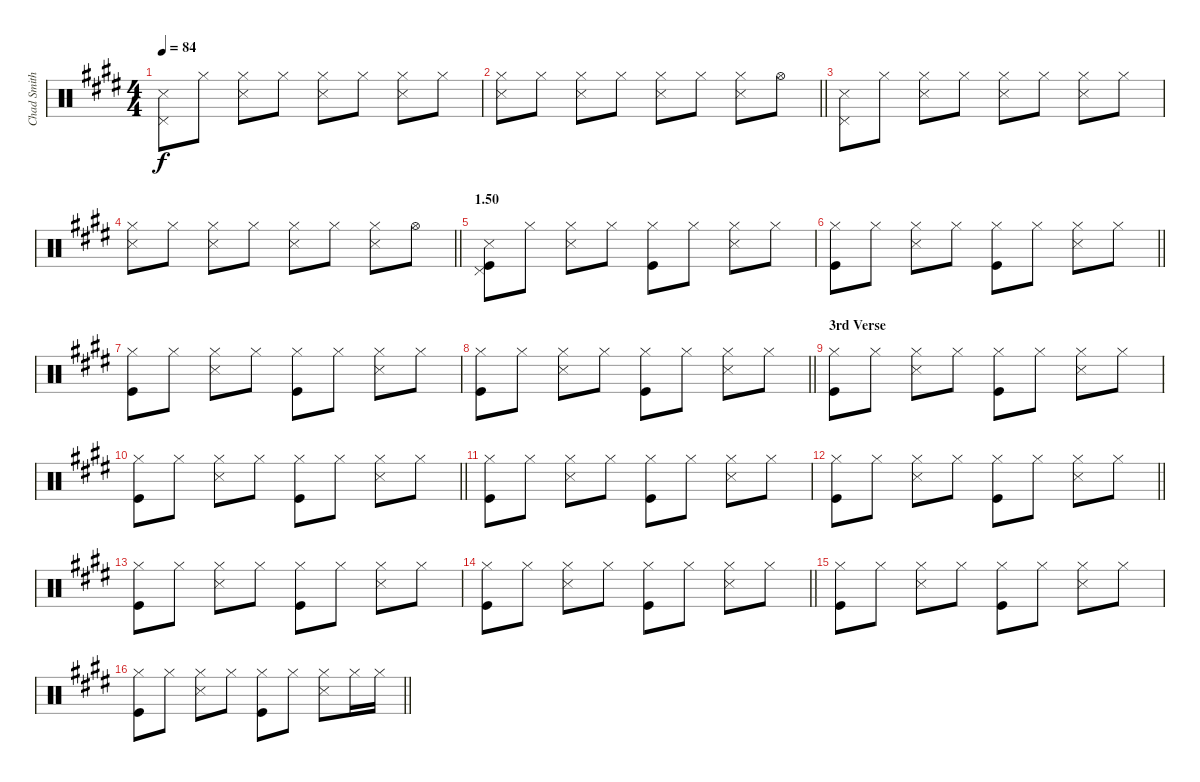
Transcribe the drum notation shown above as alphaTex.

\track ("Chad Smith" "Chad Smith") {instrument percussion}
\staff {score}
\articulation defaults
\ts (4 4)
\tempo 84
\clef neutral
\ks c#minor
("Snare (side stick) 3" "Pedal Hi-Hat (hit)").8{dy f} "Hi-Hat (closed)".8 ("Snare (side stick) 3" "Hi-Hat (closed)").8 "Hi-Hat (closed)".8 ("Hi-Hat (closed)" "Snare (side stick) 3").8 "Hi-Hat (closed)".8 ("Hi-Hat (closed)" "Snare (side stick) 3").8 "Hi-Hat (closed)".8 |
\barLineRight lightlight
\ks e
("Snare (side stick) 3" "Hi-Hat (closed)").8 "Hi-Hat (closed)".8 ("Snare (side stick) 3" "Hi-Hat (closed)").8 "Hi-Hat (closed)".8 ("Hi-Hat (closed)" "Snare (side stick) 3").8 "Hi-Hat (closed)".8 ("Hi-Hat (closed)" "Snare (side stick) 3").8 "Hi-Hat (open)".8 |
\ks c#minor
("Snare (side stick) 3" "Pedal Hi-Hat (hit)").8 "Hi-Hat (closed)".8 ("Snare (side stick) 3" "Hi-Hat (closed)").8 "Hi-Hat (closed)".8 ("Hi-Hat (closed)" "Snare (side stick) 3").8 "Hi-Hat (closed)".8 ("Hi-Hat (closed)" "Snare (side stick) 3").8 "Hi-Hat (closed)".8 |
\barLineRight lightlight
\ks e
("Snare (side stick) 3" "Hi-Hat (closed)").8 "Hi-Hat (closed)".8 ("Snare (side stick) 3" "Hi-Hat (closed)").8 "Hi-Hat (closed)".8 ("Hi-Hat (closed)" "Snare (side stick) 3").8 "Hi-Hat (closed)".8 ("Hi-Hat (closed)" "Snare (side stick) 3").8 "Hi-Hat (open)".8 |
\section ("" "1.50")
\ks c#minor
("Snare (side stick) 3" "Pedal Hi-Hat (hit)" "Kick (hit)").8 "Hi-Hat (closed)".8 ("Snare (side stick) 3" "Hi-Hat (closed)").8 "Hi-Hat (closed)".8 ("Hi-Hat (closed)" "Kick (hit)").8 "Hi-Hat (closed)".8 ("Hi-Hat (closed)" "Snare (side stick) 3").8 "Hi-Hat (closed)".8 |
\barLineRight lightlight
\ks e
("Kick (hit)" "Hi-Hat (closed)").8 "Hi-Hat (closed)".8 ("Snare (side stick) 3" "Hi-Hat (closed)").8 "Hi-Hat (closed)".8 ("Hi-Hat (closed)" "Kick (hit)").8 "Hi-Hat (closed)".8 ("Hi-Hat (closed)" "Snare (side stick) 3").8 "Hi-Hat (closed)".8 |
\ks c#minor
("Kick (hit)" "Hi-Hat (closed)").8 "Hi-Hat (closed)".8 ("Snare (side stick) 3" "Hi-Hat (closed)").8 "Hi-Hat (closed)".8 ("Hi-Hat (closed)" "Kick (hit)").8 "Hi-Hat (closed)".8 ("Hi-Hat (closed)" "Snare (side stick) 3").8 "Hi-Hat (closed)".8 |
\barLineRight lightlight
("Kick (hit)" "Hi-Hat (closed)").8 "Hi-Hat (closed)".8 ("Snare (side stick) 3" "Hi-Hat (closed)").8 "Hi-Hat (closed)".8 ("Hi-Hat (closed)" "Kick (hit)").8 "Hi-Hat (closed)".8 ("Hi-Hat (closed)" "Snare (side stick) 3").8 "Hi-Hat (closed)".8 |
\section ("" "3rd Verse")
("Kick (hit)" "Hi-Hat (closed)").8 "Hi-Hat (closed)".8 ("Snare (side stick) 3" "Hi-Hat (closed)").8 "Hi-Hat (closed)".8 ("Hi-Hat (closed)" "Kick (hit)").8 "Hi-Hat (closed)".8 ("Hi-Hat (closed)" "Snare (side stick) 3").8 "Hi-Hat (closed)".8 |
\barLineRight lightlight
("Kick (hit)" "Hi-Hat (closed)").8 "Hi-Hat (closed)".8 ("Snare (side stick) 3" "Hi-Hat (closed)").8 "Hi-Hat (closed)".8 ("Hi-Hat (closed)" "Kick (hit)").8 "Hi-Hat (closed)".8 ("Hi-Hat (closed)" "Snare (side stick) 3").8 "Hi-Hat (closed)".8 |
("Kick (hit)" "Hi-Hat (closed)").8 "Hi-Hat (closed)".8 ("Snare (side stick) 3" "Hi-Hat (closed)").8 "Hi-Hat (closed)".8 ("Hi-Hat (closed)" "Kick (hit)").8 "Hi-Hat (closed)".8 ("Hi-Hat (closed)" "Snare (side stick) 3").8 "Hi-Hat (closed)".8 |
\barLineRight lightlight
("Kick (hit)" "Hi-Hat (closed)").8 "Hi-Hat (closed)".8 ("Snare (side stick) 3" "Hi-Hat (closed)").8 "Hi-Hat (closed)".8 ("Hi-Hat (closed)" "Kick (hit)").8 "Hi-Hat (closed)".8 ("Hi-Hat (closed)" "Snare (side stick) 3").8 "Hi-Hat (closed)".8 |
("Kick (hit)" "Hi-Hat (closed)").8 "Hi-Hat (closed)".8 ("Snare (side stick) 3" "Hi-Hat (closed)").8 "Hi-Hat (closed)".8 ("Hi-Hat (closed)" "Kick (hit)").8 "Hi-Hat (closed)".8 ("Hi-Hat (closed)" "Snare (side stick) 3").8 "Hi-Hat (closed)".8 |
\barLineRight lightlight
("Kick (hit)" "Hi-Hat (closed)").8 "Hi-Hat (closed)".8 ("Snare (side stick) 3" "Hi-Hat (closed)").8 "Hi-Hat (closed)".8 ("Hi-Hat (closed)" "Kick (hit)").8 "Hi-Hat (closed)".8 ("Hi-Hat (closed)" "Snare (side stick) 3").8 "Hi-Hat (closed)".8 |
("Kick (hit)" "Hi-Hat (closed)").8 "Hi-Hat (closed)".8 ("Snare (side stick) 3" "Hi-Hat (closed)").8 "Hi-Hat (closed)".8 ("Hi-Hat (closed)" "Kick (hit)").8 "Hi-Hat (closed)".8 ("Hi-Hat (closed)" "Snare (side stick) 3").8 "Hi-Hat (closed)".8 |
\barLineRight lightlight
("Kick (hit)" "Hi-Hat (closed)").8 "Hi-Hat (closed)".8 ("Snare (side stick) 3" "Hi-Hat (closed)").8 "Hi-Hat (closed)".8 ("Hi-Hat (closed)" "Kick (hit)").8 "Hi-Hat (closed)".8 ("Hi-Hat (closed)" "Snare (side stick) 3").8 "Hi-Hat (closed)".16 "Hi-Hat (closed)".16
